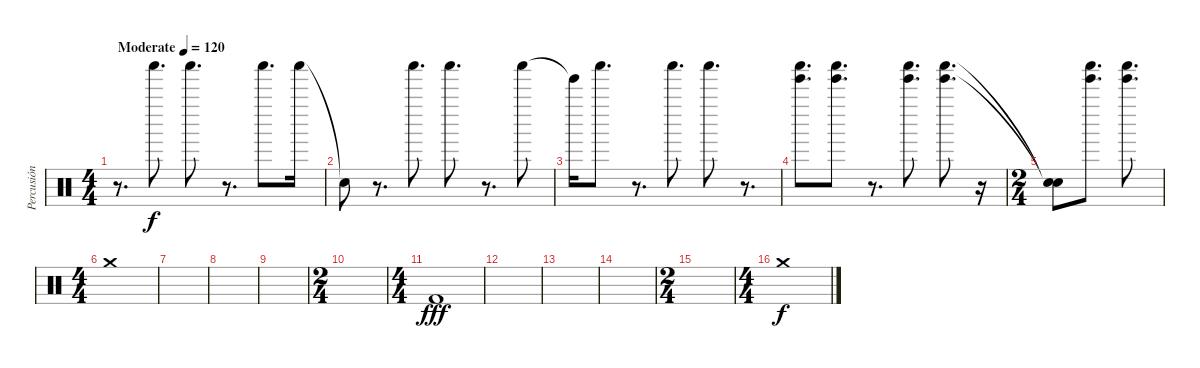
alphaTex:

\track ("Percusión" "Percusión") {instrument percussion}
\staff {score}
\articulation defaults
\ts (4 4)
\tempo (120 "Moderate")
\clef neutral
\ks c
r.8{d dy f volume 4} "Shaker (hit)".8{d} "Shaker (hit)".8{d} r.8{d} "Shaker (hit)".8{d} "Shaker (hit)".16 |
"Snare (hit)"{t}.8 r.8{d} "Shaker (hit)".8{d} "Shaker (hit)".8{d} r.8{d} "Shaker (hit)".8 |
"Tinkle Bell (hit)"{t}.16 "Shaker (hit)".8{d} r.8{d} "Shaker (hit)".8{d} "Shaker (hit)".8{d} r.8{d} |
("Shaker (hit)" "Tinkle Bell (hit)").8{d} ("Shaker (hit)" "Tinkle Bell (hit)").8{d} r.8{d} ("Shaker (hit)" "Tinkle Bell (hit)").8{d} ("Shaker (hit)" "Tinkle Bell (hit)").8{d} r.16 |
\ts (2 4)
("Snare (hit)"{t} "Snare (hit)"{t}).8 ("Shaker (hit)" "Tinkle Bell (hit)").8{d} ("Shaker (hit)" "Tinkle Bell (hit)").8{d} |
\ts (4 4)
"Crash medium (hit)".1{volume 13} |
|
|
|
\ts (2 4)
|
\ts (4 4)
"Kick (hit) 2".1{dy fff} |
|
|
|
\ts (2 4)
|
\ts (4 4)
"Crash medium (hit)".1{dy f volume 13}
